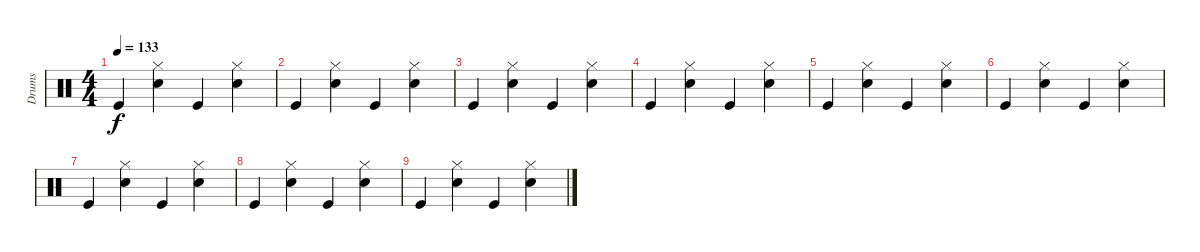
\track ("Drums" "Drums") {instrument percussion}
\staff {score}
\articulation defaults
\ts (4 4)
\tempo 133
\clef neutral
\ks c "Kick (hit)".4{dy f}
("Hi-Hat (closed)" "Snare (hit) 2").4 "Kick (hit)".4 ("Hi-Hat (closed)" "Snare (hit) 2").4 |
"Kick (hit)".4 ("Hi-Hat (closed)" "Snare (hit) 2").4 "Kick (hit)".4 ("Hi-Hat (closed)" "Snare (hit) 2").4 |
"Kick (hit)".4 ("Hi-Hat (closed)" "Snare (hit) 2").4 "Kick (hit)".4 ("Hi-Hat (closed)" "Snare (hit) 2").4 |
"Kick (hit)".4 ("Hi-Hat (closed)" "Snare (hit) 2").4 "Kick (hit)".4 ("Hi-Hat (closed)" "Snare (hit) 2").4 |
"Kick (hit)".4{volume 0} ("Hi-Hat (closed)" "Snare (hit) 2").4 "Kick (hit)".4 ("Hi-Hat (closed)" "Snare (hit) 2").4 |
"Kick (hit)".4 ("Hi-Hat (closed)" "Snare (hit) 2").4 "Kick (hit)".4 ("Hi-Hat (closed)" "Snare (hit) 2").4 |
"Kick (hit)".4 ("Hi-Hat (closed)" "Snare (hit) 2").4 "Kick (hit)".4 ("Hi-Hat (closed)" "Snare (hit) 2").4 |
"Kick (hit)".4 ("Hi-Hat (closed)" "Snare (hit) 2").4 "Kick (hit)".4 ("Hi-Hat (closed)" "Snare (hit) 2").4 |
"Kick (hit)".4 ("Hi-Hat (closed)" "Snare (hit) 2").4 "Kick (hit)".4 ("Hi-Hat (closed)" "Snare (hit) 2").4
